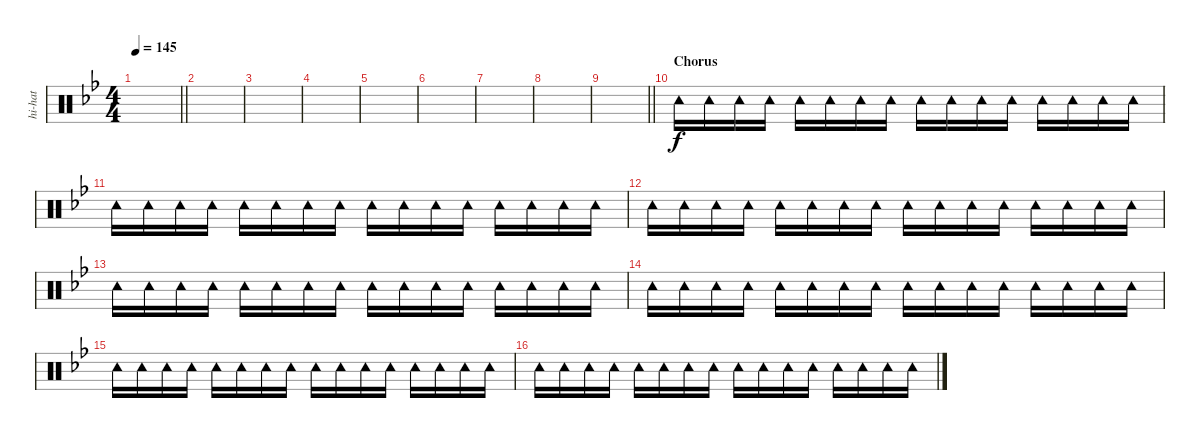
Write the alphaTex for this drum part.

\track ("hi-hat" "hi-hat") {instrument percussion}
\staff {score}
\articulation defaults
\ts (4 4)
\tempo 145
\clef neutral
\barLineRight lightlight
\ks bb
|
|
|
|
|
|
|
|
\barLineRight lightlight
|
\section ("" "Chorus")
"Tambourine (hit)".16 "Tambourine (hit)".16 "Tambourine (hit)".16 "Tambourine (hit)".16 "Tambourine (hit)".16 "Tambourine (hit)".16 "Tambourine (hit)".16 "Tambourine (hit)".16 "Tambourine (hit)".16 "Tambourine (hit)".16 "Tambourine (hit)".16 "Tambourine (hit)".16 "Tambourine (hit)".16 "Tambourine (hit)".16 "Tambourine (hit)".16 "Tambourine (hit)".16 |
"Tambourine (hit)".16 "Tambourine (hit)".16 "Tambourine (hit)".16 "Tambourine (hit)".16 "Tambourine (hit)".16 "Tambourine (hit)".16 "Tambourine (hit)".16 "Tambourine (hit)".16 "Tambourine (hit)".16 "Tambourine (hit)".16 "Tambourine (hit)".16 "Tambourine (hit)".16 "Tambourine (hit)".16 "Tambourine (hit)".16 "Tambourine (hit)".16 "Tambourine (hit)".16 |
"Tambourine (hit)".16 "Tambourine (hit)".16 "Tambourine (hit)".16 "Tambourine (hit)".16 "Tambourine (hit)".16 "Tambourine (hit)".16 "Tambourine (hit)".16 "Tambourine (hit)".16 "Tambourine (hit)".16 "Tambourine (hit)".16 "Tambourine (hit)".16 "Tambourine (hit)".16 "Tambourine (hit)".16 "Tambourine (hit)".16 "Tambourine (hit)".16 "Tambourine (hit)".16 |
"Tambourine (hit)".16 "Tambourine (hit)".16 "Tambourine (hit)".16 "Tambourine (hit)".16 "Tambourine (hit)".16 "Tambourine (hit)".16 "Tambourine (hit)".16 "Tambourine (hit)".16 "Tambourine (hit)".16 "Tambourine (hit)".16 "Tambourine (hit)".16 "Tambourine (hit)".16 "Tambourine (hit)".16 "Tambourine (hit)".16 "Tambourine (hit)".16 "Tambourine (hit)".16 |
"Tambourine (hit)".16 "Tambourine (hit)".16 "Tambourine (hit)".16 "Tambourine (hit)".16 "Tambourine (hit)".16 "Tambourine (hit)".16 "Tambourine (hit)".16 "Tambourine (hit)".16 "Tambourine (hit)".16 "Tambourine (hit)".16 "Tambourine (hit)".16 "Tambourine (hit)".16 "Tambourine (hit)".16 "Tambourine (hit)".16 "Tambourine (hit)".16 "Tambourine (hit)".16 |
"Tambourine (hit)".16 "Tambourine (hit)".16 "Tambourine (hit)".16 "Tambourine (hit)".16 "Tambourine (hit)".16 "Tambourine (hit)".16 "Tambourine (hit)".16 "Tambourine (hit)".16 "Tambourine (hit)".16 "Tambourine (hit)".16 "Tambourine (hit)".16 "Tambourine (hit)".16 "Tambourine (hit)".16 "Tambourine (hit)".16 "Tambourine (hit)".16 "Tambourine (hit)".16 |
"Tambourine (hit)".16 "Tambourine (hit)".16 "Tambourine (hit)".16 "Tambourine (hit)".16 "Tambourine (hit)".16 "Tambourine (hit)".16 "Tambourine (hit)".16 "Tambourine (hit)".16 "Tambourine (hit)".16 "Tambourine (hit)".16 "Tambourine (hit)".16 "Tambourine (hit)".16 "Tambourine (hit)".16 "Tambourine (hit)".16 "Tambourine (hit)".16 "Tambourine (hit)".16
